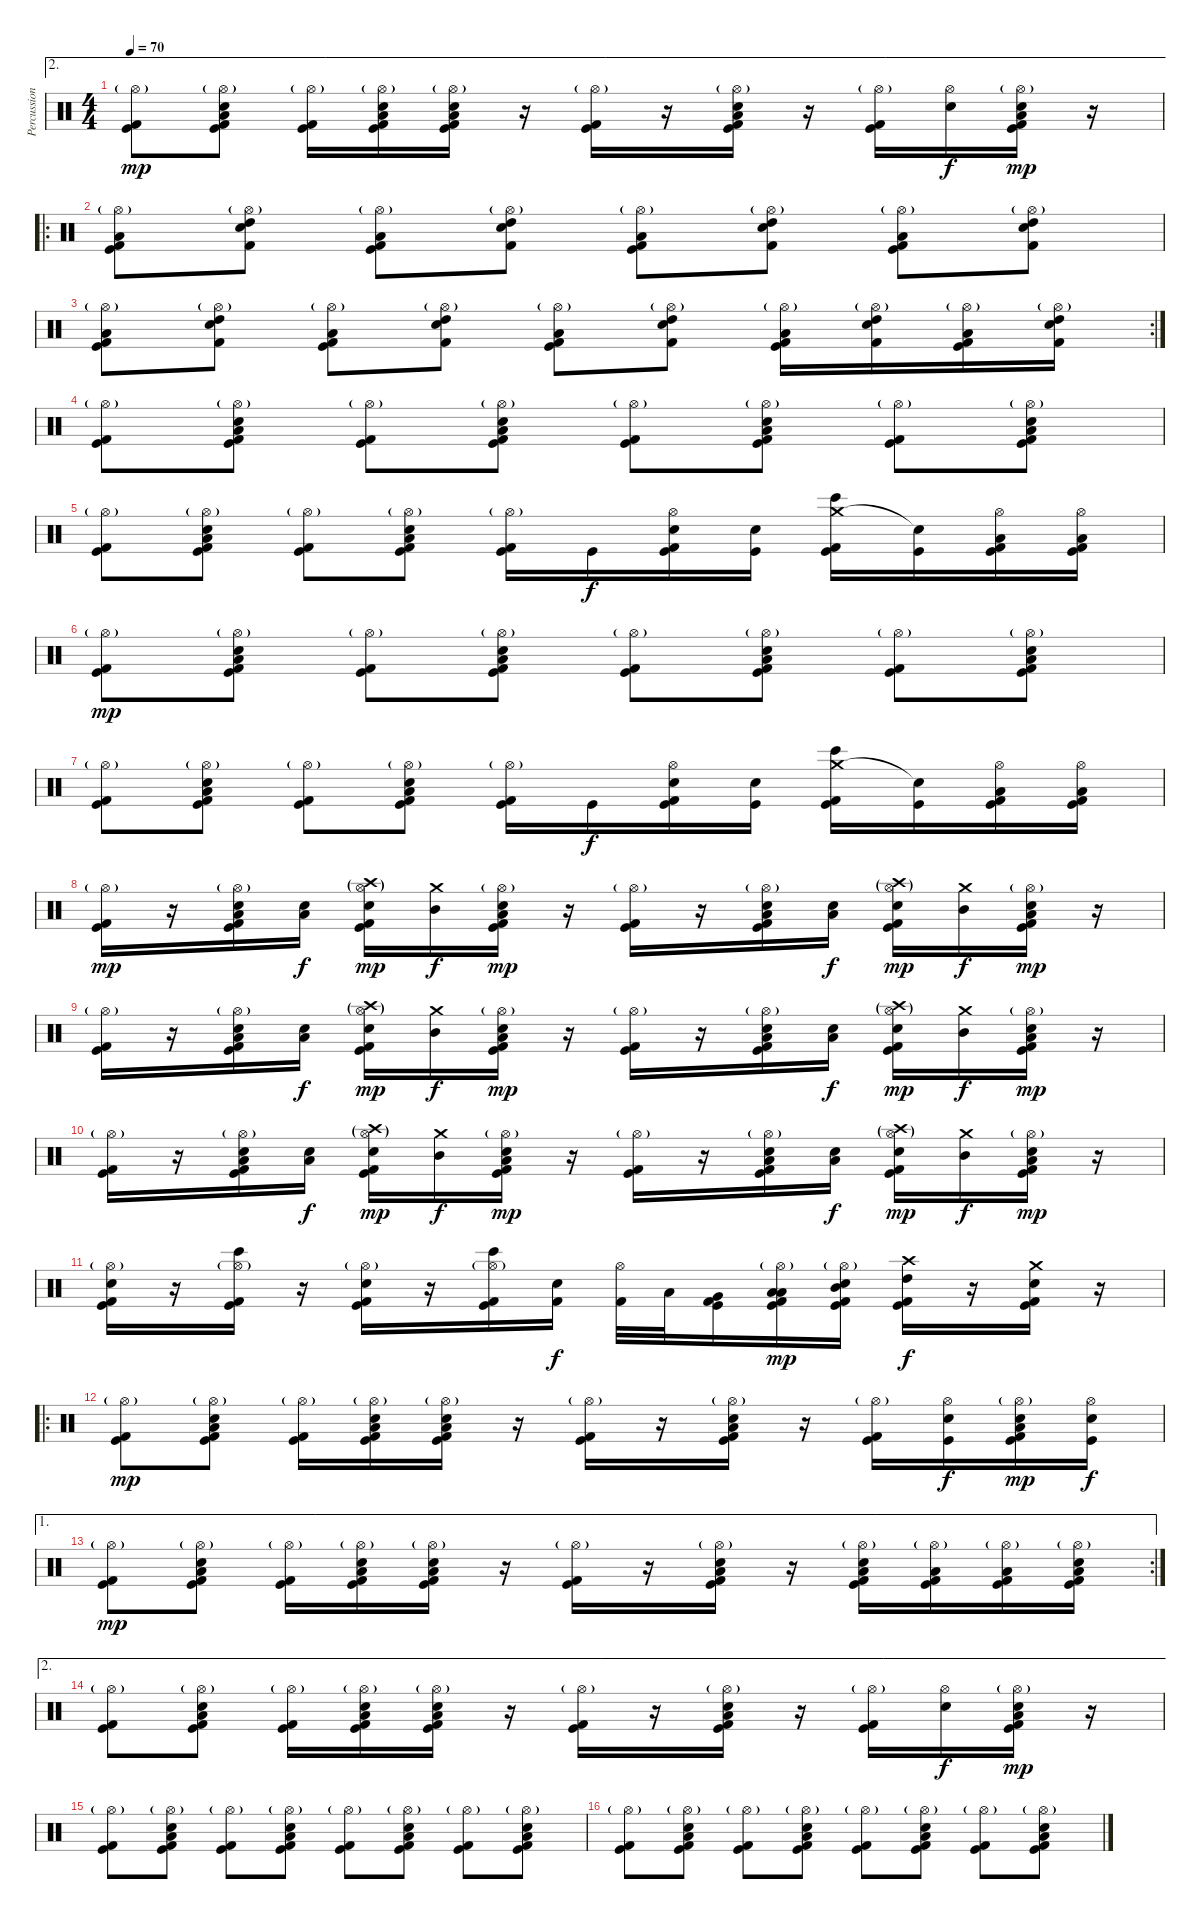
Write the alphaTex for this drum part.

\track ("Percussion" "Percussion") {instrument percussion}
\staff {score}
\articulation defaults
\ae 2
\ts (4 4)
\tempo 70
\clef neutral
\ks c
("Hi-Hat (open)"{g} "Kick (hit)" "Kick (hit) 2").8{dy mp} ("Hi-Hat (open)"{g} "Snare (hit) 2" "Low Floor Tom (hit)" "Kick (hit)" "Kick (hit) 2").8 ("Hi-Hat (open)"{g} "Kick (hit)" "Kick (hit) 2").16 ("Hi-Hat (open)"{g} "Snare (hit) 2" "Low Floor Tom (hit)" "Kick (hit)" "Kick (hit) 2").16 ("Hi-Hat (open)"{g} "Snare (hit) 2" "Low Floor Tom (hit)" "Kick (hit)" "Kick (hit) 2").16 r.16 ("Hi-Hat (open)"{g} "Kick (hit)" "Kick (hit) 2").16 r.16 ("Hi-Hat (open)"{g} "Snare (hit) 2" "Low Floor Tom (hit)" "Kick (hit)" "Kick (hit) 2").16 r.16 ("Hi-Hat (open)"{g} "Kick (hit)" "Kick (hit) 2").16 ("Hi-Hat (open)" "Snare (hit) 2").16{dy f} ("Hi-Hat (open)"{g} "Snare (hit) 2" "Low Floor Tom (hit)" "Kick (hit)" "Kick (hit) 2").16{dy mp} r.16 |
\ro
("Hi-Hat (open)"{g} "Low Floor Tom (hit)" "Kick (hit)" "Kick (hit) 2").8 ("Hi-Hat (open)"{g} "Snare (hit) 2" "High Tom (hit)" "Kick (hit) 2").8 ("Hi-Hat (open)"{g} "Low Floor Tom (hit)" "Kick (hit)" "Kick (hit) 2").8 ("Hi-Hat (open)"{g} "Snare (hit) 2" "High Tom (hit)" "Kick (hit) 2").8 ("Hi-Hat (open)"{g} "Low Floor Tom (hit)" "Kick (hit)" "Kick (hit) 2").8 ("Hi-Hat (open)"{g} "Snare (hit) 2" "High Tom (hit)" "Kick (hit) 2").8 ("Hi-Hat (open)"{g} "Low Floor Tom (hit)" "Kick (hit)" "Kick (hit) 2").8 ("Hi-Hat (open)"{g} "Snare (hit) 2" "High Tom (hit)" "Kick (hit) 2").8 |
\rc 2
("Hi-Hat (open)"{g} "Low Floor Tom (hit)" "Kick (hit)" "Kick (hit) 2").8 ("Hi-Hat (open)"{g} "Snare (hit) 2" "High Tom (hit)" "Kick (hit) 2").8 ("Hi-Hat (open)"{g} "Low Floor Tom (hit)" "Kick (hit)" "Kick (hit) 2").8 ("Hi-Hat (open)"{g} "Snare (hit) 2" "High Tom (hit)" "Kick (hit) 2").8 ("Hi-Hat (open)"{g} "Low Floor Tom (hit)" "Kick (hit)" "Kick (hit) 2").8 ("Hi-Hat (open)"{g} "Snare (hit) 2" "High Tom (hit)" "Kick (hit) 2").8 ("Hi-Hat (open)"{g} "Low Floor Tom (hit)" "Kick (hit)" "Kick (hit) 2").16 ("Hi-Hat (open)"{g} "Snare (hit) 2" "High Tom (hit)" "Kick (hit) 2").16 ("Hi-Hat (open)"{g} "Low Floor Tom (hit)" "Kick (hit)" "Kick (hit) 2").16 ("Hi-Hat (open)"{g} "Snare (hit) 2" "High Tom (hit)" "Kick (hit) 2").16 |
("Hi-Hat (open)"{g} "Kick (hit)" "Kick (hit) 2").8 ("Hi-Hat (open)"{g} "Snare (hit) 2" "Low Floor Tom (hit)" "Kick (hit)" "Kick (hit) 2").8 ("Hi-Hat (open)"{g} "Kick (hit)" "Kick (hit) 2").8 ("Hi-Hat (open)"{g} "Snare (hit) 2" "Low Floor Tom (hit)" "Kick (hit)" "Kick (hit) 2").8 ("Hi-Hat (open)"{g} "Kick (hit)" "Kick (hit) 2").8 ("Hi-Hat (open)"{g} "Snare (hit) 2" "Low Floor Tom (hit)" "Kick (hit)" "Kick (hit) 2").8 ("Hi-Hat (open)"{g} "Kick (hit)" "Kick (hit) 2").8 ("Hi-Hat (open)"{g} "Snare (hit) 2" "Low Floor Tom (hit)" "Kick (hit)" "Kick (hit) 2").8 |
("Hi-Hat (open)"{g} "Kick (hit)" "Kick (hit) 2").8 ("Hi-Hat (open)"{g} "Snare (hit) 2" "Low Floor Tom (hit)" "Kick (hit)" "Kick (hit) 2").8 ("Hi-Hat (open)"{g} "Kick (hit)" "Kick (hit) 2").8 ("Hi-Hat (open)"{g} "Snare (hit) 2" "Low Floor Tom (hit)" "Kick (hit)" "Kick (hit) 2").8 ("Hi-Hat (open)"{g} "Kick (hit)" "Kick (hit) 2").16 "Kick (hit)".16{dy f} ("Hi-Hat (open)" "Snare (hit) 2" "Kick (hit)" "Kick (hit) 2").16 ("Snare (hit) 2" "Kick (hit)").16 ("Crash medium (hit)" "Bongo High (hit)" "Kick (hit)" "Kick (hit) 2").16 ("Snare (hit)"{t} "Kick (hit)").16 ("Hi-Hat (open)" "Low Floor Tom (hit)" "Kick (hit) 2" "Kick (hit)").16 ("Hi-Hat (open)" "Low Floor Tom (hit)" "Kick (hit) 2" "Kick (hit)").16 |
("Hi-Hat (open)"{g} "Kick (hit)" "Kick (hit) 2").8{dy mp} ("Hi-Hat (open)"{g} "Snare (hit) 2" "Low Floor Tom (hit)" "Kick (hit)" "Kick (hit) 2").8 ("Hi-Hat (open)"{g} "Kick (hit)" "Kick (hit) 2").8 ("Hi-Hat (open)"{g} "Snare (hit) 2" "Low Floor Tom (hit)" "Kick (hit)" "Kick (hit) 2").8 ("Hi-Hat (open)"{g} "Kick (hit)" "Kick (hit) 2").8 ("Hi-Hat (open)"{g} "Snare (hit) 2" "Low Floor Tom (hit)" "Kick (hit)" "Kick (hit) 2").8 ("Hi-Hat (open)"{g} "Kick (hit)" "Kick (hit) 2").8 ("Hi-Hat (open)"{g} "Snare (hit) 2" "Low Floor Tom (hit)" "Kick (hit)" "Kick (hit) 2").8 |
("Hi-Hat (open)"{g} "Kick (hit)" "Kick (hit) 2").8 ("Hi-Hat (open)"{g} "Snare (hit) 2" "Low Floor Tom (hit)" "Kick (hit)" "Kick (hit) 2").8 ("Hi-Hat (open)"{g} "Kick (hit)" "Kick (hit) 2").8 ("Hi-Hat (open)"{g} "Snare (hit) 2" "Low Floor Tom (hit)" "Kick (hit)" "Kick (hit) 2").8 ("Hi-Hat (open)"{g} "Kick (hit)" "Kick (hit) 2").16 "Kick (hit)".16{dy f} ("Hi-Hat (open)" "Snare (hit) 2" "Kick (hit)" "Kick (hit) 2").16 ("Snare (hit) 2" "Kick (hit)").16 ("Crash medium (hit)" "Bongo High (hit)" "Kick (hit)" "Kick (hit) 2").16 ("Snare (hit)"{t} "Kick (hit)").16 ("Hi-Hat (open)" "Low Floor Tom (hit)" "Kick (hit) 2" "Kick (hit)").16 ("Hi-Hat (open)" "Low Floor Tom (hit)" "Kick (hit) 2" "Kick (hit)").16 |
("Hi-Hat (open)"{g} "Kick (hit)" "Kick (hit) 2").16{dy mp} r.16 ("Hi-Hat (open)"{g} "Low Floor Tom (hit)" "Snare (hit) 2" "Kick (hit)" "Kick (hit) 2").16 ("Snare (hit) 2" "Low Tom (hit)").16{dy f} ("Hi-Hat (open)"{g} "Crash high (hit)"{g} "Snare (hit) 2" "Kick (hit)" "Kick (hit) 2").16{dy mp} ("Crash medium (hit)" "Mid Tom (hit)").16{dy f} ("Hi-Hat (open)"{g} "Low Floor Tom (hit)" "Snare (hit) 2" "Kick (hit)" "Kick (hit) 2").16{dy mp} r.16 ("Hi-Hat (open)"{g} "Kick (hit)" "Kick (hit) 2").16 r.16 ("Hi-Hat (open)"{g} "Low Floor Tom (hit)" "Snare (hit) 2" "Kick (hit)" "Kick (hit) 2").16 ("Snare (hit) 2" "Low Tom (hit)").16{dy f} ("Hi-Hat (open)"{g} "Crash high (hit)"{g} "Snare (hit) 2" "Kick (hit)" "Kick (hit) 2").16{dy mp} ("Crash medium (hit)" "Mid Tom (hit)").16{dy f} ("Hi-Hat (open)"{g} "Low Floor Tom (hit)" "Snare (hit) 2" "Kick (hit)" "Kick (hit) 2").16{dy mp} r.16 |
("Hi-Hat (open)"{g} "Kick (hit)" "Kick (hit) 2").16 r.16 ("Hi-Hat (open)"{g} "Low Floor Tom (hit)" "Snare (hit) 2" "Kick (hit)" "Kick (hit) 2").16 ("Snare (hit) 2" "Low Tom (hit)").16{dy f} ("Hi-Hat (open)"{g} "Crash high (hit)"{g} "Snare (hit) 2" "Kick (hit)" "Kick (hit) 2").16{dy mp} ("Crash medium (hit)" "Mid Tom (hit)").16{dy f} ("Hi-Hat (open)"{g} "Low Floor Tom (hit)" "Snare (hit) 2" "Kick (hit)" "Kick (hit) 2").16{dy mp} r.16 ("Hi-Hat (open)"{g} "Kick (hit)" "Kick (hit) 2").16 r.16 ("Hi-Hat (open)"{g} "Low Floor Tom (hit)" "Snare (hit) 2" "Kick (hit)" "Kick (hit) 2").16 ("Snare (hit) 2" "Low Tom (hit)").16{dy f} ("Hi-Hat (open)"{g} "Crash high (hit)"{g} "Snare (hit) 2" "Kick (hit)" "Kick (hit) 2").16{dy mp} ("Crash medium (hit)" "Mid Tom (hit)").16{dy f} ("Hi-Hat (open)"{g} "Low Floor Tom (hit)" "Snare (hit) 2" "Kick (hit)" "Kick (hit) 2").16{dy mp} r.16 |
("Hi-Hat (open)"{g} "Kick (hit)" "Kick (hit) 2").16 r.16 ("Hi-Hat (open)"{g} "Low Floor Tom (hit)" "Snare (hit) 2" "Kick (hit)" "Kick (hit) 2").16 ("Snare (hit) 2" "Low Tom (hit)").16{dy f} ("Hi-Hat (open)"{g} "Crash high (hit)"{g} "Snare (hit) 2" "Kick (hit)" "Kick (hit) 2").16{dy mp} ("Crash medium (hit)" "Mid Tom (hit)").16{dy f} ("Hi-Hat (open)"{g} "Low Floor Tom (hit)" "Snare (hit) 2" "Kick (hit)" "Kick (hit) 2").16{dy mp} r.16 ("Hi-Hat (open)"{g} "Kick (hit)" "Kick (hit) 2").16 r.16 ("Hi-Hat (open)"{g} "Low Floor Tom (hit)" "Snare (hit) 2" "Kick (hit)" "Kick (hit) 2").16 ("Snare (hit) 2" "Low Tom (hit)").16{dy f} ("Hi-Hat (open)"{g} "Crash high (hit)"{g} "Snare (hit) 2" "Kick (hit)" "Kick (hit) 2").16{dy mp} ("Crash medium (hit)" "Mid Tom (hit)").16{dy f} ("Hi-Hat (open)"{g} "Low Floor Tom (hit)" "Snare (hit) 2" "Kick (hit)" "Kick (hit) 2").16{dy mp} r.16 |
("Hi-Hat (open)"{g} "Snare (hit) 2" "Kick (hit)" "Kick (hit) 2").16 r.16 ("Hi-Hat (open)"{g} "Bongo High (hit)" "Kick (hit)" "Kick (hit) 2").16 r.16 ("Hi-Hat (open)"{g} "Snare (hit) 2" "Kick (hit)" "Kick (hit) 2").16 r.16 ("Hi-Hat (open)"{g} "Bongo High (hit)" "Kick (hit)" "Kick (hit) 2").16 ("Snare (hit) 2" "Kick (hit) 2").16{dy f} ("Hi-Hat (open)" "Kick (hit) 2").32 "Low Floor Tom (hit)".32 ("Very Low Tom (hit)" "Kick (hit)" "Kick (hit) 2").16 ("Hi-Hat (open)"{g} "Low Tom (hit)" "Low Floor Tom (hit)" "Kick (hit)" "Kick (hit) 2").16{dy mp} ("Hi-Hat (open)"{g} "Snare (hit) 2" "Mid Tom (hit)" "Kick (hit)" "Kick (hit) 2").16 ("Crash high (hit)" "High Tom (hit)" "Kick (hit)" "Kick (hit) 2").16{dy f} r.16 ("Crash medium (hit)" "Snare (hit) 2" "Kick (hit) 2" "Kick (hit)").16 r.16 |
\ro
("Hi-Hat (open)"{g} "Kick (hit)" "Kick (hit) 2").8{dy mp} ("Hi-Hat (open)"{g} "Snare (hit) 2" "Low Floor Tom (hit)" "Kick (hit)" "Kick (hit) 2").8 ("Hi-Hat (open)"{g} "Kick (hit)" "Kick (hit) 2").16 ("Hi-Hat (open)"{g} "Snare (hit) 2" "Low Floor Tom (hit)" "Kick (hit)" "Kick (hit) 2").16 ("Hi-Hat (open)"{g} "Snare (hit) 2" "Low Floor Tom (hit)" "Kick (hit)" "Kick (hit) 2").16 r.16 ("Hi-Hat (open)"{g} "Kick (hit)" "Kick (hit) 2").16 r.16 ("Hi-Hat (open)"{g} "Snare (hit) 2" "Low Floor Tom (hit)" "Kick (hit)" "Kick (hit) 2").16 r.16 ("Hi-Hat (open)"{g} "Kick (hit)" "Kick (hit) 2").16 ("Hi-Hat (open)" "Snare (hit) 2" "Kick (hit)").16{dy f} ("Hi-Hat (open)"{g} "Snare (hit) 2" "Low Floor Tom (hit)" "Kick (hit)" "Kick (hit) 2").16{dy mp} ("Hi-Hat (open)" "Snare (hit) 2" "Kick (hit)").16{dy f} |
\ae 1
\rc 2
("Hi-Hat (open)"{g} "Kick (hit)" "Kick (hit) 2").8{dy mp} ("Hi-Hat (open)"{g} "Snare (hit) 2" "Low Floor Tom (hit)" "Kick (hit)" "Kick (hit) 2").8 ("Hi-Hat (open)"{g} "Kick (hit)" "Kick (hit) 2").16 ("Hi-Hat (open)"{g} "Snare (hit) 2" "Low Floor Tom (hit)" "Kick (hit)" "Kick (hit) 2").16 ("Hi-Hat (open)"{g} "Snare (hit) 2" "Low Floor Tom (hit)" "Kick (hit)" "Kick (hit) 2").16 r.16 ("Hi-Hat (open)"{g} "Kick (hit)" "Kick (hit) 2").16 r.16 ("Hi-Hat (open)"{g} "Snare (hit) 2" "Low Floor Tom (hit)" "Kick (hit)" "Kick (hit) 2").16 r.16 ("Hi-Hat (open)"{g} "Snare (hit) 2" "Low Floor Tom (hit)" "Kick (hit)" "Kick (hit) 2").16 ("Hi-Hat (open)"{g} "Low Tom (hit)" "Kick (hit)" "Kick (hit) 2").16 ("Hi-Hat (open)"{g} "Low Floor Tom (hit)" "Kick (hit)" "Kick (hit) 2").16 ("Hi-Hat (open)"{g} "Snare (hit) 2" "Low Floor Tom (hit)" "Kick (hit)" "Kick (hit) 2").16 |
\ae 2
("Hi-Hat (open)"{g} "Kick (hit)" "Kick (hit) 2").8 ("Hi-Hat (open)"{g} "Snare (hit) 2" "Low Floor Tom (hit)" "Kick (hit)" "Kick (hit) 2").8 ("Hi-Hat (open)"{g} "Kick (hit)" "Kick (hit) 2").16 ("Hi-Hat (open)"{g} "Snare (hit) 2" "Low Floor Tom (hit)" "Kick (hit)" "Kick (hit) 2").16 ("Hi-Hat (open)"{g} "Snare (hit) 2" "Low Floor Tom (hit)" "Kick (hit)" "Kick (hit) 2").16 r.16 ("Hi-Hat (open)"{g} "Kick (hit)" "Kick (hit) 2").16 r.16 ("Hi-Hat (open)"{g} "Snare (hit) 2" "Low Floor Tom (hit)" "Kick (hit)" "Kick (hit) 2").16 r.16 ("Hi-Hat (open)"{g} "Kick (hit)" "Kick (hit) 2").16 ("Hi-Hat (open)" "Snare (hit) 2").16{dy f} ("Hi-Hat (open)"{g} "Snare (hit) 2" "Low Floor Tom (hit)" "Kick (hit)" "Kick (hit) 2").16{dy mp} r.16 |
("Hi-Hat (open)"{g} "Kick (hit)" "Kick (hit) 2").8 ("Hi-Hat (open)"{g} "Snare (hit) 2" "Low Floor Tom (hit)" "Kick (hit)" "Kick (hit) 2").8 ("Hi-Hat (open)"{g} "Kick (hit)" "Kick (hit) 2").8 ("Hi-Hat (open)"{g} "Snare (hit) 2" "Low Floor Tom (hit)" "Kick (hit)" "Kick (hit) 2").8 ("Hi-Hat (open)"{g} "Kick (hit)" "Kick (hit) 2").8 ("Hi-Hat (open)"{g} "Snare (hit) 2" "Low Floor Tom (hit)" "Kick (hit)" "Kick (hit) 2").8 ("Hi-Hat (open)"{g} "Kick (hit)" "Kick (hit) 2").8 ("Hi-Hat (open)"{g} "Snare (hit) 2" "Low Floor Tom (hit)" "Kick (hit)" "Kick (hit) 2").8 |
("Hi-Hat (open)"{g} "Kick (hit)" "Kick (hit) 2").8 ("Hi-Hat (open)"{g} "Snare (hit) 2" "Low Floor Tom (hit)" "Kick (hit)" "Kick (hit) 2").8 ("Hi-Hat (open)"{g} "Kick (hit)" "Kick (hit) 2").8 ("Hi-Hat (open)"{g} "Snare (hit) 2" "Low Floor Tom (hit)" "Kick (hit)" "Kick (hit) 2").8 ("Hi-Hat (open)"{g} "Kick (hit)" "Kick (hit) 2").8 ("Hi-Hat (open)"{g} "Snare (hit) 2" "Low Floor Tom (hit)" "Kick (hit)" "Kick (hit) 2").8 ("Hi-Hat (open)"{g} "Kick (hit)" "Kick (hit) 2").8 ("Hi-Hat (open)"{g} "Snare (hit) 2" "Low Floor Tom (hit)" "Kick (hit)" "Kick (hit) 2").8
